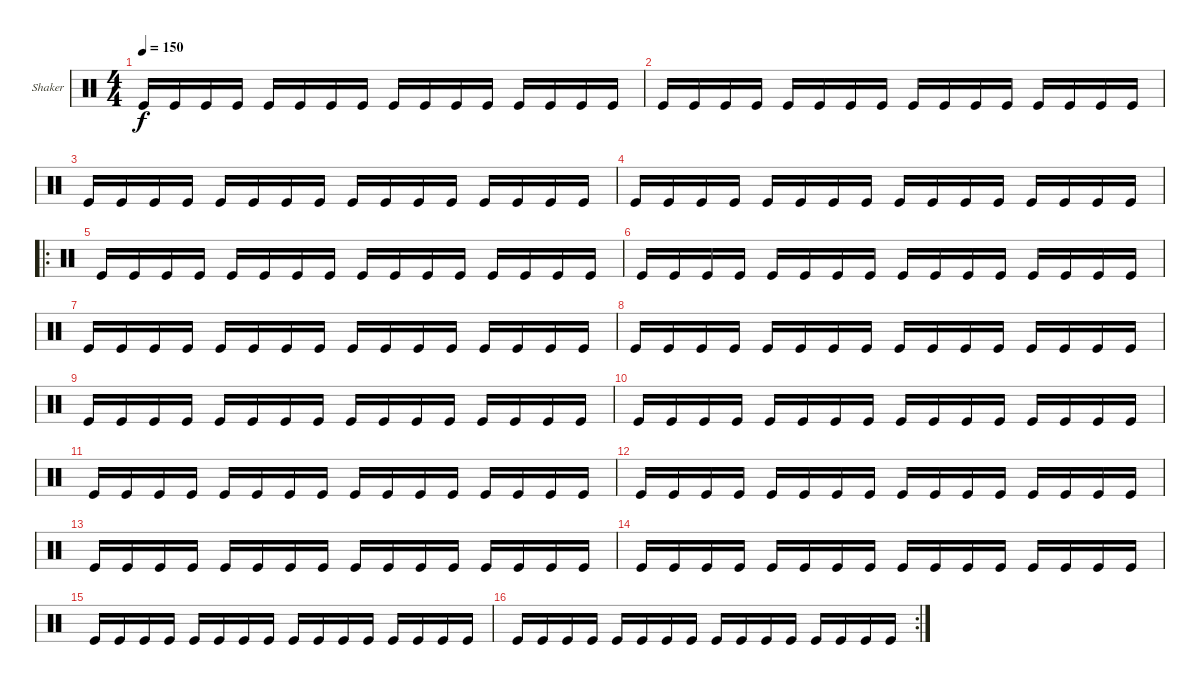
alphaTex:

\bracketExtendMode groupsimilarinstruments
\firstSystemTrackNameOrientation horizontal
\otherSystemsTrackNameOrientation horizontal
\track ("Shaker" "Shaker") {instrument percussion}
\staff {score}
\articulation defaults
\ts (4 4)
\tempo 150
\clef neutral
\ks c "Kick (hit)".16{dy f} "Kick (hit)".16 "Kick (hit)".16 "Kick (hit)".16 "Kick (hit)".16 "Kick (hit)".16 "Kick (hit)".16 "Kick (hit)".16 "Kick (hit)".16 "Kick (hit)".16 "Kick (hit)".16 "Kick (hit)".16 "Kick (hit)".16 "Kick (hit)".16 "Kick (hit)".16 "Kick (hit)".16
|
"Kick (hit)".16 "Kick (hit)".16 "Kick (hit)".16 "Kick (hit)".16 "Kick (hit)".16 "Kick (hit)".16 "Kick (hit)".16 "Kick (hit)".16 "Kick (hit)".16 "Kick (hit)".16 "Kick (hit)".16 "Kick (hit)".16 "Kick (hit)".16 "Kick (hit)".16 "Kick (hit)".16 "Kick (hit)".16 |
"Kick (hit)".16 "Kick (hit)".16 "Kick (hit)".16 "Kick (hit)".16 "Kick (hit)".16 "Kick (hit)".16 "Kick (hit)".16 "Kick (hit)".16 "Kick (hit)".16 "Kick (hit)".16 "Kick (hit)".16 "Kick (hit)".16 "Kick (hit)".16 "Kick (hit)".16 "Kick (hit)".16 "Kick (hit)".16 |
"Kick (hit)".16 "Kick (hit)".16 "Kick (hit)".16 "Kick (hit)".16 "Kick (hit)".16 "Kick (hit)".16 "Kick (hit)".16 "Kick (hit)".16 "Kick (hit)".16 "Kick (hit)".16 "Kick (hit)".16 "Kick (hit)".16 "Kick (hit)".16 "Kick (hit)".16 "Kick (hit)".16 "Kick (hit)".16 |
\ro "Kick (hit)".16 "Kick (hit)".16 "Kick (hit)".16 "Kick (hit)".16 "Kick (hit)".16 "Kick (hit)".16 "Kick (hit)".16 "Kick (hit)".16 "Kick (hit)".16 "Kick (hit)".16 "Kick (hit)".16 "Kick (hit)".16 "Kick (hit)".16 "Kick (hit)".16 "Kick (hit)".16 "Kick (hit)".16
|
"Kick (hit)".16 "Kick (hit)".16 "Kick (hit)".16 "Kick (hit)".16 "Kick (hit)".16 "Kick (hit)".16 "Kick (hit)".16 "Kick (hit)".16 "Kick (hit)".16 "Kick (hit)".16 "Kick (hit)".16 "Kick (hit)".16 "Kick (hit)".16 "Kick (hit)".16 "Kick (hit)".16 "Kick (hit)".16 |
"Kick (hit)".16 "Kick (hit)".16 "Kick (hit)".16 "Kick (hit)".16 "Kick (hit)".16 "Kick (hit)".16 "Kick (hit)".16 "Kick (hit)".16 "Kick (hit)".16 "Kick (hit)".16 "Kick (hit)".16 "Kick (hit)".16 "Kick (hit)".16 "Kick (hit)".16 "Kick (hit)".16 "Kick (hit)".16 |
"Kick (hit)".16 "Kick (hit)".16 "Kick (hit)".16 "Kick (hit)".16 "Kick (hit)".16 "Kick (hit)".16 "Kick (hit)".16 "Kick (hit)".16 "Kick (hit)".16 "Kick (hit)".16 "Kick (hit)".16 "Kick (hit)".16 "Kick (hit)".16 "Kick (hit)".16 "Kick (hit)".16 "Kick (hit)".16 |
"Kick (hit)".16 "Kick (hit)".16 "Kick (hit)".16 "Kick (hit)".16 "Kick (hit)".16 "Kick (hit)".16 "Kick (hit)".16 "Kick (hit)".16 "Kick (hit)".16 "Kick (hit)".16 "Kick (hit)".16 "Kick (hit)".16 "Kick (hit)".16 "Kick (hit)".16 "Kick (hit)".16 "Kick (hit)".16 |
"Kick (hit)".16 "Kick (hit)".16 "Kick (hit)".16 "Kick (hit)".16 "Kick (hit)".16 "Kick (hit)".16 "Kick (hit)".16 "Kick (hit)".16 "Kick (hit)".16 "Kick (hit)".16 "Kick (hit)".16 "Kick (hit)".16 "Kick (hit)".16 "Kick (hit)".16 "Kick (hit)".16 "Kick (hit)".16 |
"Kick (hit)".16 "Kick (hit)".16 "Kick (hit)".16 "Kick (hit)".16 "Kick (hit)".16 "Kick (hit)".16 "Kick (hit)".16 "Kick (hit)".16 "Kick (hit)".16 "Kick (hit)".16 "Kick (hit)".16 "Kick (hit)".16 "Kick (hit)".16 "Kick (hit)".16 "Kick (hit)".16 "Kick (hit)".16 |
"Kick (hit)".16 "Kick (hit)".16 "Kick (hit)".16 "Kick (hit)".16 "Kick (hit)".16 "Kick (hit)".16 "Kick (hit)".16 "Kick (hit)".16 "Kick (hit)".16 "Kick (hit)".16 "Kick (hit)".16 "Kick (hit)".16 "Kick (hit)".16 "Kick (hit)".16 "Kick (hit)".16 "Kick (hit)".16 |
"Kick (hit)".16 "Kick (hit)".16 "Kick (hit)".16 "Kick (hit)".16 "Kick (hit)".16 "Kick (hit)".16 "Kick (hit)".16 "Kick (hit)".16 "Kick (hit)".16 "Kick (hit)".16 "Kick (hit)".16 "Kick (hit)".16 "Kick (hit)".16 "Kick (hit)".16 "Kick (hit)".16 "Kick (hit)".16 |
"Kick (hit)".16 "Kick (hit)".16 "Kick (hit)".16 "Kick (hit)".16 "Kick (hit)".16 "Kick (hit)".16 "Kick (hit)".16 "Kick (hit)".16 "Kick (hit)".16 "Kick (hit)".16 "Kick (hit)".16 "Kick (hit)".16 "Kick (hit)".16 "Kick (hit)".16 "Kick (hit)".16 "Kick (hit)".16 |
"Kick (hit)".16 "Kick (hit)".16 "Kick (hit)".16 "Kick (hit)".16 "Kick (hit)".16 "Kick (hit)".16 "Kick (hit)".16 "Kick (hit)".16 "Kick (hit)".16 "Kick (hit)".16 "Kick (hit)".16 "Kick (hit)".16 "Kick (hit)".16 "Kick (hit)".16 "Kick (hit)".16 "Kick (hit)".16 |
\rc 2 "Kick (hit)".16 "Kick (hit)".16 "Kick (hit)".16 "Kick (hit)".16 "Kick (hit)".16 "Kick (hit)".16 "Kick (hit)".16 "Kick (hit)".16 "Kick (hit)".16 "Kick (hit)".16 "Kick (hit)".16 "Kick (hit)".16 "Kick (hit)".16 "Kick (hit)".16 "Kick (hit)".16 "Kick (hit)".16
